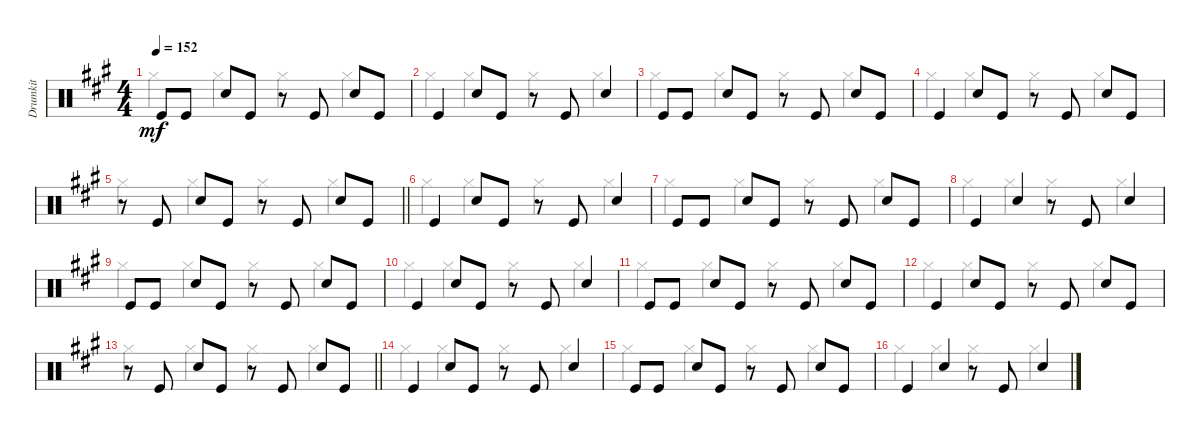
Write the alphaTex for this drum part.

\track ("Drumkit" "Drumkit") {instrument percussion}
\staff {score}
\articulation defaults
\voice
\ts (4 4)
\tempo 152
\clef neutral
\ks a "Kick (hit)".8{dy mf} "Kick (hit)".8 "Snare (hit) 2".8 "Kick (hit)".8
r.8 "Kick (hit)".8 "Snare (hit) 2".8 "Kick (hit)".8 |
"Kick (hit)".4 "Snare (hit) 2".8 "Kick (hit)".8 r.8 "Kick (hit)".8 "Snare (hit) 2".4 |
"Kick (hit)".8 "Kick (hit)".8 "Snare (hit) 2".8 "Kick (hit)".8 r.8 "Kick (hit)".8 "Snare (hit) 2".8 "Kick (hit)".8 |
"Kick (hit)".4 "Snare (hit) 2".8 "Kick (hit)".8 r.8 "Kick (hit)".8 "Snare (hit) 2".8 "Kick (hit)".8 |
\barLineRight lightlight
r.8 "Kick (hit)".8 "Snare (hit) 2".8 "Kick (hit)".8 r.8 "Kick (hit)".8 "Snare (hit) 2".8 "Kick (hit)".8 |
"Kick (hit)".4 "Snare (hit) 2".8 "Kick (hit)".8 r.8 "Kick (hit)".8 "Snare (hit) 2".4 |
"Kick (hit)".8 "Kick (hit)".8 "Snare (hit) 2".8 "Kick (hit)".8 r.8 "Kick (hit)".8 "Snare (hit) 2".8 "Kick (hit)".8 |
"Kick (hit)".4 "Snare (hit) 2".4 r.8 "Kick (hit)".8 "Snare (hit) 2".4 |
"Kick (hit)".8 "Kick (hit)".8 "Snare (hit) 2".8 "Kick (hit)".8 r.8 "Kick (hit)".8 "Snare (hit) 2".8 "Kick (hit)".8 |
"Kick (hit)".4 "Snare (hit) 2".8 "Kick (hit)".8 r.8 "Kick (hit)".8 "Snare (hit) 2".4 |
"Kick (hit)".8 "Kick (hit)".8 "Snare (hit) 2".8 "Kick (hit)".8 r.8 "Kick (hit)".8 "Snare (hit) 2".8 "Kick (hit)".8 |
"Kick (hit)".4 "Snare (hit) 2".8 "Kick (hit)".8 r.8 "Kick (hit)".8 "Snare (hit) 2".8 "Kick (hit)".8 |
\barLineRight lightlight
r.8 "Kick (hit)".8 "Snare (hit) 2".8 "Kick (hit)".8 r.8 "Kick (hit)".8 "Snare (hit) 2".8 "Kick (hit)".8 |
"Kick (hit)".4 "Snare (hit) 2".8 "Kick (hit)".8 r.8 "Kick (hit)".8 "Snare (hit) 2".4 |
"Kick (hit)".8 "Kick (hit)".8 "Snare (hit) 2".8 "Kick (hit)".8 r.8 "Kick (hit)".8 "Snare (hit) 2".8 "Kick (hit)".8 |
"Kick (hit)".4 "Snare (hit) 2".4 r.8 "Kick (hit)".8 "Snare (hit) 2".4
\voice
\clef neutral
\ottava regular
\simile none
\ks a "Hi-Hat (closed)".4{dy mf} "Hi-Hat (closed)".4 "Hi-Hat (closed)".4 "Hi-Hat (closed)".4
|
"Hi-Hat (closed)".4 "Hi-Hat (closed)".4 "Hi-Hat (closed)".4 "Hi-Hat (closed)".4 |
"Hi-Hat (closed)".4 "Hi-Hat (closed)".4 "Hi-Hat (closed)".4 "Hi-Hat (closed)".4 |
"Hi-Hat (closed)".4 "Hi-Hat (closed)".4 "Hi-Hat (closed)".4 "Hi-Hat (closed)".4 |
\barLineRight lightlight "Hi-Hat (closed)".4 "Hi-Hat (closed)".4 "Hi-Hat (closed)".4 "Hi-Hat (closed)".4
|
"Hi-Hat (closed)".4 "Hi-Hat (closed)".4 "Hi-Hat (closed)".4 "Hi-Hat (closed)".4 |
"Hi-Hat (closed)".4 "Hi-Hat (closed)".4 "Hi-Hat (closed)".4 "Hi-Hat (closed)".4 |
"Hi-Hat (closed)".4 "Hi-Hat (closed)".4 "Hi-Hat (closed)".4 "Hi-Hat (closed)".4 |
"Hi-Hat (closed)".4 "Hi-Hat (closed)".4 "Hi-Hat (closed)".4 "Hi-Hat (closed)".4 |
"Hi-Hat (closed)".4 "Hi-Hat (closed)".4 "Hi-Hat (closed)".4 "Hi-Hat (closed)".4 |
"Hi-Hat (closed)".4 "Hi-Hat (closed)".4 "Hi-Hat (closed)".4 "Hi-Hat (closed)".4 |
"Hi-Hat (closed)".4 "Hi-Hat (closed)".4 "Hi-Hat (closed)".4 "Hi-Hat (closed)".4 |
\barLineRight lightlight "Hi-Hat (closed)".4 "Hi-Hat (closed)".4 "Hi-Hat (closed)".4 "Hi-Hat (closed)".4
|
"Hi-Hat (closed)".4 "Hi-Hat (closed)".4 "Hi-Hat (closed)".4 "Hi-Hat (closed)".4 |
"Hi-Hat (closed)".4 "Hi-Hat (closed)".4 "Hi-Hat (closed)".4 "Hi-Hat (closed)".4 |
"Hi-Hat (closed)".4 "Hi-Hat (closed)".4 "Hi-Hat (closed)".4 "Hi-Hat (closed)".4
